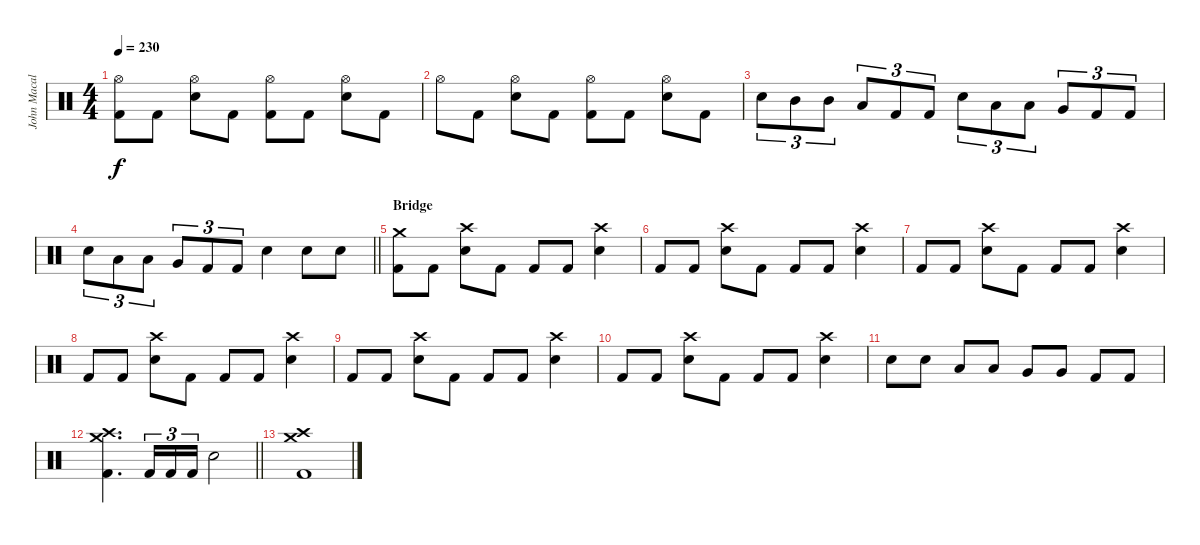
\track ("John Macaluso" "John Macal") {instrument percussion}
\staff {score}
\articulation defaults
\ts (4 4)
\tempo 230
\clef neutral
\ks c
("Hi-Hat (open)" "Kick (hit) 2").8{dy f} "Kick (hit) 2".8 ("Hi-Hat (open)" "Snare (hit) 2").8 "Kick (hit) 2".8 ("Hi-Hat (open)" "Kick (hit) 2").8 "Kick (hit) 2".8 ("Hi-Hat (open)" "Snare (hit) 2").8 "Kick (hit) 2".8 |
"Hi-Hat (open)".8 "Kick (hit) 2".8 ("Hi-Hat (open)" "Snare (hit) 2").8 "Kick (hit) 2".8 ("Hi-Hat (open)" "Kick (hit) 2").8 "Kick (hit) 2".8 ("Hi-Hat (open)" "Snare (hit) 2").8 "Kick (hit) 2".8 |
"Snare (hit) 2".8{tu (3 2)} "Mid Tom (hit)".8{tu (3 2)} "Mid Tom (hit)".8{tu (3 2)} "Low Tom (hit)".8{tu (3 2)} "Kick (hit) 2".8{tu (3 2)} "Kick (hit) 2".8{tu (3 2)} "Snare (hit) 2".8{tu (3 2)} "Low Tom (hit)".8{tu (3 2)} "Low Tom (hit)".8{tu (3 2)} "Very Low Tom (hit)".8{tu (3 2)} "Kick (hit) 2".8{tu (3 2)} "Kick (hit) 2".8{tu (3 2)} |
\barLineRight lightlight "Snare (hit) 2".8{tu (3 2)} "Low Tom (hit)".8{tu (3 2)} "Low Tom (hit)".8{tu (3 2)} "Very Low Tom (hit)".8{tu (3 2)} "Kick (hit) 2".8{tu (3 2)} "Kick (hit) 2".8{tu (3 2)} "Snare (hit) 2".4 "Snare (hit) 2".8 "Snare (hit) 2".8
|
\section ("" "Bridge")
("Crash medium (hit)" "Kick (hit) 2").8 "Kick (hit) 2".8 ("Crash high (hit)" "Snare (hit) 2").8 "Kick (hit) 2".8 "Kick (hit) 2".8 "Kick (hit) 2".8 ("Crash high (hit)" "Snare (hit) 2").4 |
"Kick (hit) 2".8 "Kick (hit) 2".8 ("Crash high (hit)" "Snare (hit) 2").8 "Kick (hit) 2".8 "Kick (hit) 2".8 "Kick (hit) 2".8 ("Crash high (hit)" "Snare (hit) 2").4 |
"Kick (hit) 2".8 "Kick (hit) 2".8 ("Crash high (hit)" "Snare (hit) 2").8 "Kick (hit) 2".8 "Kick (hit) 2".8 "Kick (hit) 2".8 ("Crash high (hit)" "Snare (hit) 2").4 |
"Kick (hit) 2".8 "Kick (hit) 2".8 ("Crash high (hit)" "Snare (hit) 2").8 "Kick (hit) 2".8 "Kick (hit) 2".8 "Kick (hit) 2".8 ("Crash high (hit)" "Snare (hit) 2").4 |
"Kick (hit) 2".8 "Kick (hit) 2".8 ("Crash high (hit)" "Snare (hit) 2").8 "Kick (hit) 2".8 "Kick (hit) 2".8 "Kick (hit) 2".8 ("Crash high (hit)" "Snare (hit) 2").4 |
"Kick (hit) 2".8 "Kick (hit) 2".8 ("Crash high (hit)" "Snare (hit) 2").8 "Kick (hit) 2".8 "Kick (hit) 2".8 "Kick (hit) 2".8 ("Crash high (hit)" "Snare (hit) 2").4 |
"Snare (hit) 2".8 "Snare (hit) 2".8 "Low Tom (hit)".8 "Low Tom (hit)".8 "Very Low Tom (hit)".8 "Very Low Tom (hit)".8 "Kick (hit) 2".8 "Kick (hit) 2".8 |
\barLineRight lightlight
("Crash medium (hit)" "Crash high (hit)" "Kick (hit) 2").4{d} "Kick (hit) 2".16{tu (3 2)} "Kick (hit) 2".16{tu (3 2)} "Kick (hit) 2".16{tu (3 2)} "Snare (hit) 2".2 |
("Crash high (hit)" "Crash medium (hit)" "Kick (hit) 2").1
